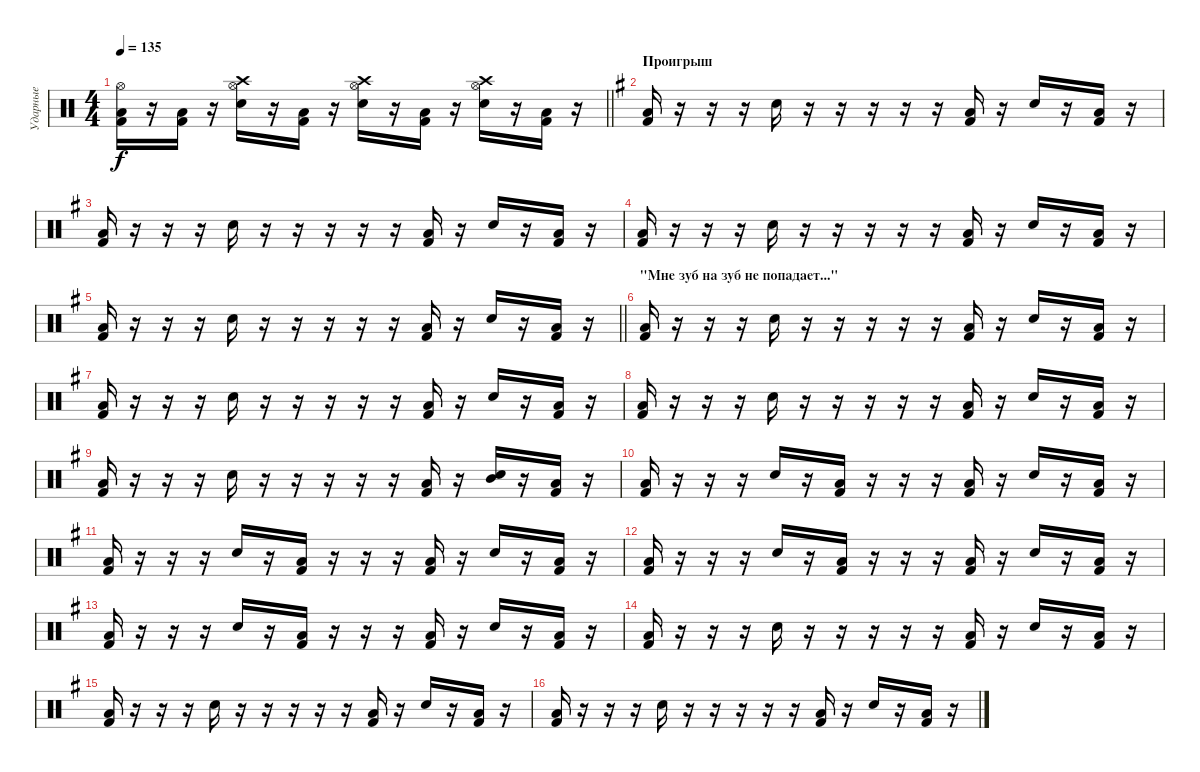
\track ("Ударные" "Ударные") {instrument percussion}
\staff {score}
\articulation defaults
\ts (4 4)
\tempo 135
\clef neutral
\barLineRight lightlight
\ks c
("Hi-Hat (open)" "Low Floor Tom (hit)" "Kick (hit) 2").16{dy f} r.16 ("Low Floor Tom (hit)" "Kick (hit) 2").16 r.16 ("Crash high (hit)" "Hi-Hat (open)" "Electric Snare (hit)").16 r.16 ("Low Floor Tom (hit)" "Kick (hit) 2").16 r.16 ("Crash high (hit)" "Hi-Hat (open)" "Electric Snare (hit)").16 r.16 ("Low Floor Tom (hit)" "Kick (hit) 2").16 r.16 ("Crash high (hit)" "Hi-Hat (open)" "Electric Snare (hit)").16 r.16 ("Low Floor Tom (hit)" "Kick (hit) 2").16 r.16 |
\section ("" "Проигрыш")
\ks eminor
("Low Floor Tom (hit)" "Kick (hit) 2").16 r.16 r.16 r.16 "Electric Snare (hit)".16 r.16 r.16 r.16 r.16 r.16 ("Low Floor Tom (hit)" "Kick (hit) 2").16 r.16 "Electric Snare (hit)".16 r.16 ("Low Floor Tom (hit)" "Kick (hit) 2").16 r.16 |
("Low Floor Tom (hit)" "Kick (hit) 2").16 r.16 r.16 r.16 "Electric Snare (hit)".16 r.16 r.16 r.16 r.16 r.16 ("Low Floor Tom (hit)" "Kick (hit) 2").16 r.16 "Electric Snare (hit)".16 r.16 ("Low Floor Tom (hit)" "Kick (hit) 2").16 r.16 |
("Low Floor Tom (hit)" "Kick (hit) 2").16 r.16 r.16 r.16 "Electric Snare (hit)".16 r.16 r.16 r.16 r.16 r.16 ("Low Floor Tom (hit)" "Kick (hit) 2").16 r.16 "Electric Snare (hit)".16 r.16 ("Low Floor Tom (hit)" "Kick (hit) 2").16 r.16 |
\barLineRight lightlight
("Low Floor Tom (hit)" "Kick (hit) 2").16 r.16 r.16 r.16 "Electric Snare (hit)".16 r.16 r.16 r.16 r.16 r.16 ("Low Floor Tom (hit)" "Kick (hit) 2").16 r.16 "Electric Snare (hit)".16 r.16 ("Low Floor Tom (hit)" "Kick (hit) 2").16 r.16 |
\section ("" "\"Мне зуб на зуб не попадает...\"")
("Low Floor Tom (hit)" "Kick (hit) 2").16 r.16 r.16 r.16 "Electric Snare (hit)".16 r.16 r.16 r.16 r.16 r.16 ("Low Floor Tom (hit)" "Kick (hit) 2").16 r.16 "Electric Snare (hit)".16 r.16 ("Low Floor Tom (hit)" "Kick (hit) 2").16 r.16 |
("Low Floor Tom (hit)" "Kick (hit) 2").16 r.16 r.16 r.16 "Electric Snare (hit)".16 r.16 r.16 r.16 r.16 r.16 ("Low Floor Tom (hit)" "Kick (hit) 2").16 r.16 "Electric Snare (hit)".16 r.16 ("Low Floor Tom (hit)" "Kick (hit) 2").16 r.16 |
("Low Floor Tom (hit)" "Kick (hit) 2").16 r.16 r.16 r.16 "Electric Snare (hit)".16 r.16 r.16 r.16 r.16 r.16 ("Low Floor Tom (hit)" "Kick (hit) 2").16 r.16 "Electric Snare (hit)".16 r.16 ("Low Floor Tom (hit)" "Kick (hit) 2").16 r.16 |
("Low Floor Tom (hit)" "Kick (hit) 2").16 r.16 r.16 r.16 "Electric Snare (hit)".16 r.16 r.16 r.16 r.16 r.16 ("Low Floor Tom (hit)" "Kick (hit) 2").16 r.16 ("Electric Snare (hit)" "Mid Tom (hit)").16 r.16 ("Low Floor Tom (hit)" "Kick (hit) 2").16 r.16 |
("Low Floor Tom (hit)" "Kick (hit) 2").16 r.16 r.16 r.16 "Electric Snare (hit)".16 r.16 ("Low Floor Tom (hit)" "Kick (hit) 2").16 r.16 r.16 r.16 ("Low Floor Tom (hit)" "Kick (hit) 2").16 r.16 "Electric Snare (hit)".16 r.16 ("Low Floor Tom (hit)" "Kick (hit) 2").16 r.16 |
("Low Floor Tom (hit)" "Kick (hit) 2").16 r.16 r.16 r.16 "Electric Snare (hit)".16 r.16 ("Low Floor Tom (hit)" "Kick (hit) 2").16 r.16 r.16 r.16 ("Low Floor Tom (hit)" "Kick (hit) 2").16 r.16 "Electric Snare (hit)".16 r.16 ("Low Floor Tom (hit)" "Kick (hit) 2").16 r.16 |
("Low Floor Tom (hit)" "Kick (hit) 2").16 r.16 r.16 r.16 "Electric Snare (hit)".16 r.16 ("Low Floor Tom (hit)" "Kick (hit) 2").16 r.16 r.16 r.16 ("Low Floor Tom (hit)" "Kick (hit) 2").16 r.16 "Electric Snare (hit)".16 r.16 ("Low Floor Tom (hit)" "Kick (hit) 2").16 r.16 |
("Low Floor Tom (hit)" "Kick (hit) 2").16 r.16 r.16 r.16 "Electric Snare (hit)".16 r.16 ("Low Floor Tom (hit)" "Kick (hit) 2").16 r.16 r.16 r.16 ("Low Floor Tom (hit)" "Kick (hit) 2").16 r.16 "Electric Snare (hit)".16 r.16 ("Low Floor Tom (hit)" "Kick (hit) 2").16 r.16 |
("Low Floor Tom (hit)" "Kick (hit) 2").16 r.16 r.16 r.16 "Electric Snare (hit)".16 r.16 r.16 r.16 r.16 r.16 ("Low Floor Tom (hit)" "Kick (hit) 2").16 r.16 "Electric Snare (hit)".16 r.16 ("Low Floor Tom (hit)" "Kick (hit) 2").16 r.16 |
("Low Floor Tom (hit)" "Kick (hit) 2").16 r.16 r.16 r.16 "Electric Snare (hit)".16 r.16 r.16 r.16 r.16 r.16 ("Low Floor Tom (hit)" "Kick (hit) 2").16 r.16 "Electric Snare (hit)".16 r.16 ("Low Floor Tom (hit)" "Kick (hit) 2").16 r.16 |
("Low Floor Tom (hit)" "Kick (hit) 2").16 r.16 r.16 r.16 "Electric Snare (hit)".16 r.16 r.16 r.16 r.16 r.16 ("Low Floor Tom (hit)" "Kick (hit) 2").16 r.16 "Electric Snare (hit)".16 r.16 ("Low Floor Tom (hit)" "Kick (hit) 2").16 r.16
